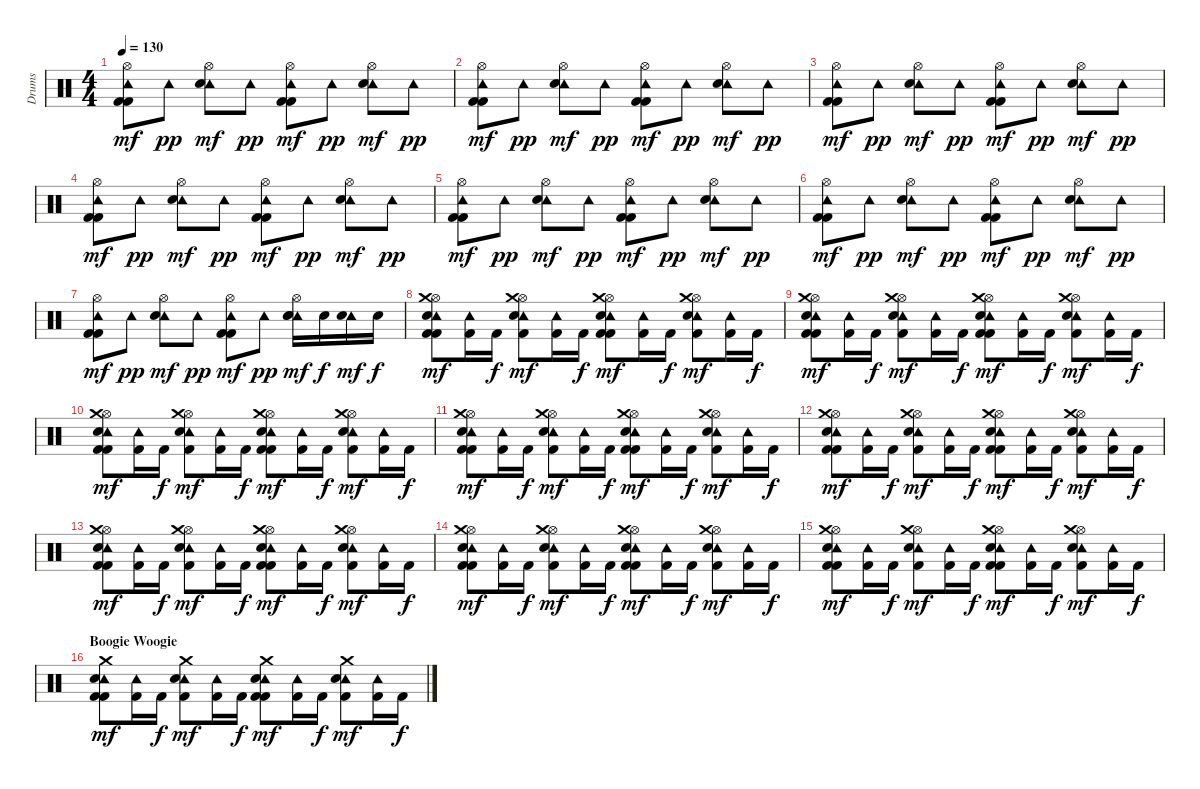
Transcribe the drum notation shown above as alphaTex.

\track ("Drums" "Drums") {instrument percussion}
\staff {score}
\articulation defaults
\ts (4 4)
\tempo 130
\clef neutral
\ks c
("Hi-Hat (open)" "Tambourine (hit)" "Kick (hit) 2" "Kick (hit) 2").8{dy mf} "Tambourine (hit)".8{dy pp} ("Hi-Hat (open)" "Tambourine (hit)" "Snare (hit) 2").8{dy mf} "Tambourine (hit)".8{dy pp} ("Hi-Hat (open)" "Tambourine (hit)" "Kick (hit) 2" "Kick (hit) 2").8{dy mf} "Tambourine (hit)".8{dy pp} ("Hi-Hat (open)" "Tambourine (hit)" "Snare (hit) 2").8{dy mf} "Tambourine (hit)".8{dy pp} |
("Hi-Hat (open)" "Tambourine (hit)" "Kick (hit) 2" "Kick (hit) 2").8{dy mf} "Tambourine (hit)".8{dy pp} ("Hi-Hat (open)" "Tambourine (hit)" "Snare (hit) 2").8{dy mf} "Tambourine (hit)".8{dy pp} ("Hi-Hat (open)" "Tambourine (hit)" "Kick (hit) 2" "Kick (hit) 2").8{dy mf} "Tambourine (hit)".8{dy pp} ("Hi-Hat (open)" "Tambourine (hit)" "Snare (hit) 2").8{dy mf} "Tambourine (hit)".8{dy pp} |
("Hi-Hat (open)" "Tambourine (hit)" "Kick (hit) 2" "Kick (hit) 2").8{dy mf} "Tambourine (hit)".8{dy pp} ("Hi-Hat (open)" "Tambourine (hit)" "Snare (hit) 2").8{dy mf} "Tambourine (hit)".8{dy pp} ("Hi-Hat (open)" "Tambourine (hit)" "Kick (hit) 2" "Kick (hit) 2").8{dy mf} "Tambourine (hit)".8{dy pp} ("Hi-Hat (open)" "Tambourine (hit)" "Snare (hit) 2").8{dy mf} "Tambourine (hit)".8{dy pp} |
("Hi-Hat (open)" "Tambourine (hit)" "Kick (hit) 2" "Kick (hit) 2").8{dy mf} "Tambourine (hit)".8{dy pp} ("Hi-Hat (open)" "Tambourine (hit)" "Snare (hit) 2").8{dy mf} "Tambourine (hit)".8{dy pp} ("Hi-Hat (open)" "Tambourine (hit)" "Kick (hit) 2" "Kick (hit) 2").8{dy mf} "Tambourine (hit)".8{dy pp} ("Hi-Hat (open)" "Tambourine (hit)" "Snare (hit) 2").8{dy mf} "Tambourine (hit)".8{dy pp} |
("Hi-Hat (open)" "Tambourine (hit)" "Kick (hit) 2" "Kick (hit) 2").8{dy mf} "Tambourine (hit)".8{dy pp} ("Hi-Hat (open)" "Tambourine (hit)" "Snare (hit) 2").8{dy mf} "Tambourine (hit)".8{dy pp} ("Hi-Hat (open)" "Tambourine (hit)" "Kick (hit) 2" "Kick (hit) 2").8{dy mf} "Tambourine (hit)".8{dy pp} ("Hi-Hat (open)" "Tambourine (hit)" "Snare (hit) 2").8{dy mf} "Tambourine (hit)".8{dy pp} |
("Hi-Hat (open)" "Tambourine (hit)" "Kick (hit) 2" "Kick (hit) 2").8{dy mf} "Tambourine (hit)".8{dy pp} ("Hi-Hat (open)" "Tambourine (hit)" "Snare (hit) 2").8{dy mf} "Tambourine (hit)".8{dy pp} ("Hi-Hat (open)" "Tambourine (hit)" "Kick (hit) 2" "Kick (hit) 2").8{dy mf} "Tambourine (hit)".8{dy pp} ("Hi-Hat (open)" "Tambourine (hit)" "Snare (hit) 2").8{dy mf} "Tambourine (hit)".8{dy pp} |
("Hi-Hat (open)" "Tambourine (hit)" "Kick (hit) 2" "Kick (hit) 2").8{dy mf} "Tambourine (hit)".8{dy pp} ("Hi-Hat (open)" "Tambourine (hit)" "Snare (hit) 2").8{dy mf} "Tambourine (hit)".8{dy pp} ("Hi-Hat (open)" "Tambourine (hit)" "Kick (hit) 2" "Kick (hit) 2").8{dy mf} "Tambourine (hit)".8{dy pp} ("Hi-Hat (open)" "Tambourine (hit)" "Snare (hit) 2" "Snare (hit) 2").16{dy mf} "Snare (hit) 2".16{dy f} ("Tambourine (hit)" "Snare (hit) 2").16{dy mf} "Snare (hit) 2".16{dy f} |
("Hi-Hat (open)" "Tambourine (hit)" "Snare (hit) 2" "Crash medium (hit)" "Kick (hit) 2" "Kick (hit) 2").8{dy mf} ("Tambourine (hit)" "Kick (hit) 2").16 "Kick (hit) 2".16{dy f} ("Hi-Hat (open)" "Tambourine (hit)" "Snare (hit) 2" "Crash medium (hit)" "Kick (hit) 2").8{dy mf} ("Tambourine (hit)" "Kick (hit) 2").16 "Kick (hit) 2".16{dy f} ("Hi-Hat (open)" "Tambourine (hit)" "Snare (hit) 2" "Crash medium (hit)" "Kick (hit) 2" "Kick (hit) 2").8{dy mf} ("Tambourine (hit)" "Kick (hit) 2").16 "Kick (hit) 2".16{dy f} ("Hi-Hat (open)" "Tambourine (hit)" "Snare (hit) 2" "Crash medium (hit)" "Kick (hit) 2").8{dy mf} ("Tambourine (hit)" "Kick (hit) 2").16 "Kick (hit) 2".16{dy f} |
("Hi-Hat (open)" "Tambourine (hit)" "Snare (hit) 2" "Crash medium (hit)" "Kick (hit) 2" "Kick (hit) 2").8{dy mf} ("Tambourine (hit)" "Kick (hit) 2").16 "Kick (hit) 2".16{dy f} ("Hi-Hat (open)" "Tambourine (hit)" "Snare (hit) 2" "Crash medium (hit)" "Kick (hit) 2").8{dy mf} ("Tambourine (hit)" "Kick (hit) 2").16 "Kick (hit) 2".16{dy f} ("Hi-Hat (open)" "Tambourine (hit)" "Snare (hit) 2" "Crash medium (hit)" "Kick (hit) 2" "Kick (hit) 2").8{dy mf} ("Tambourine (hit)" "Kick (hit) 2").16 "Kick (hit) 2".16{dy f} ("Hi-Hat (open)" "Tambourine (hit)" "Snare (hit) 2" "Crash medium (hit)" "Kick (hit) 2").8{dy mf} ("Tambourine (hit)" "Kick (hit) 2").16 "Kick (hit) 2".16{dy f} |
("Hi-Hat (open)" "Tambourine (hit)" "Snare (hit) 2" "Crash medium (hit)" "Kick (hit) 2" "Kick (hit) 2").8{dy mf} ("Tambourine (hit)" "Kick (hit) 2").16 "Kick (hit) 2".16{dy f} ("Hi-Hat (open)" "Tambourine (hit)" "Snare (hit) 2" "Crash medium (hit)" "Kick (hit) 2").8{dy mf} ("Tambourine (hit)" "Kick (hit) 2").16 "Kick (hit) 2".16{dy f} ("Hi-Hat (open)" "Tambourine (hit)" "Snare (hit) 2" "Crash medium (hit)" "Kick (hit) 2" "Kick (hit) 2").8{dy mf} ("Tambourine (hit)" "Kick (hit) 2").16 "Kick (hit) 2".16{dy f} ("Hi-Hat (open)" "Tambourine (hit)" "Snare (hit) 2" "Crash medium (hit)" "Kick (hit) 2").8{dy mf} ("Tambourine (hit)" "Kick (hit) 2").16 "Kick (hit) 2".16{dy f} |
("Hi-Hat (open)" "Tambourine (hit)" "Snare (hit) 2" "Crash medium (hit)" "Kick (hit) 2" "Kick (hit) 2").8{dy mf} ("Tambourine (hit)" "Kick (hit) 2").16 "Kick (hit) 2".16{dy f} ("Hi-Hat (open)" "Tambourine (hit)" "Snare (hit) 2" "Crash medium (hit)" "Kick (hit) 2").8{dy mf} ("Tambourine (hit)" "Kick (hit) 2").16 "Kick (hit) 2".16{dy f} ("Hi-Hat (open)" "Tambourine (hit)" "Snare (hit) 2" "Crash medium (hit)" "Kick (hit) 2" "Kick (hit) 2").8{dy mf} ("Tambourine (hit)" "Kick (hit) 2").16 "Kick (hit) 2".16{dy f} ("Hi-Hat (open)" "Tambourine (hit)" "Snare (hit) 2" "Crash medium (hit)" "Kick (hit) 2").8{dy mf} ("Tambourine (hit)" "Kick (hit) 2").16 "Kick (hit) 2".16{dy f} |
("Hi-Hat (open)" "Tambourine (hit)" "Snare (hit) 2" "Crash medium (hit)" "Kick (hit) 2" "Kick (hit) 2").8{dy mf} ("Tambourine (hit)" "Kick (hit) 2").16 "Kick (hit) 2".16{dy f} ("Hi-Hat (open)" "Tambourine (hit)" "Snare (hit) 2" "Crash medium (hit)" "Kick (hit) 2").8{dy mf} ("Tambourine (hit)" "Kick (hit) 2").16 "Kick (hit) 2".16{dy f} ("Hi-Hat (open)" "Tambourine (hit)" "Snare (hit) 2" "Crash medium (hit)" "Kick (hit) 2" "Kick (hit) 2").8{dy mf} ("Tambourine (hit)" "Kick (hit) 2").16 "Kick (hit) 2".16{dy f} ("Hi-Hat (open)" "Tambourine (hit)" "Snare (hit) 2" "Crash medium (hit)" "Kick (hit) 2").8{dy mf} ("Tambourine (hit)" "Kick (hit) 2").16 "Kick (hit) 2".16{dy f} |
("Hi-Hat (open)" "Tambourine (hit)" "Snare (hit) 2" "Crash medium (hit)" "Kick (hit) 2" "Kick (hit) 2").8{dy mf} ("Tambourine (hit)" "Kick (hit) 2").16 "Kick (hit) 2".16{dy f} ("Hi-Hat (open)" "Tambourine (hit)" "Snare (hit) 2" "Crash medium (hit)" "Kick (hit) 2").8{dy mf} ("Tambourine (hit)" "Kick (hit) 2").16 "Kick (hit) 2".16{dy f} ("Hi-Hat (open)" "Tambourine (hit)" "Snare (hit) 2" "Crash medium (hit)" "Kick (hit) 2" "Kick (hit) 2").8{dy mf} ("Tambourine (hit)" "Kick (hit) 2").16 "Kick (hit) 2".16{dy f} ("Hi-Hat (open)" "Tambourine (hit)" "Snare (hit) 2" "Crash medium (hit)" "Kick (hit) 2").8{dy mf} ("Tambourine (hit)" "Kick (hit) 2").16 "Kick (hit) 2".16{dy f} |
("Hi-Hat (open)" "Tambourine (hit)" "Snare (hit) 2" "Crash medium (hit)" "Kick (hit) 2" "Kick (hit) 2").8{dy mf} ("Tambourine (hit)" "Kick (hit) 2").16 "Kick (hit) 2".16{dy f} ("Hi-Hat (open)" "Tambourine (hit)" "Snare (hit) 2" "Crash medium (hit)" "Kick (hit) 2").8{dy mf} ("Tambourine (hit)" "Kick (hit) 2").16 "Kick (hit) 2".16{dy f} ("Hi-Hat (open)" "Tambourine (hit)" "Snare (hit) 2" "Crash medium (hit)" "Kick (hit) 2" "Kick (hit) 2").8{dy mf} ("Tambourine (hit)" "Kick (hit) 2").16 "Kick (hit) 2".16{dy f} ("Hi-Hat (open)" "Tambourine (hit)" "Snare (hit) 2" "Crash medium (hit)" "Kick (hit) 2").8{dy mf} ("Tambourine (hit)" "Kick (hit) 2").16 "Kick (hit) 2".16{dy f} |
("Hi-Hat (open)" "Tambourine (hit)" "Snare (hit) 2" "Crash medium (hit)" "Kick (hit) 2" "Kick (hit) 2").8{dy mf} ("Tambourine (hit)" "Kick (hit) 2").16 "Kick (hit) 2".16{dy f} ("Hi-Hat (open)" "Tambourine (hit)" "Snare (hit) 2" "Crash medium (hit)" "Kick (hit) 2").8{dy mf} ("Tambourine (hit)" "Kick (hit) 2").16 "Kick (hit) 2".16{dy f} ("Hi-Hat (open)" "Tambourine (hit)" "Snare (hit) 2" "Crash medium (hit)" "Kick (hit) 2" "Kick (hit) 2").8{dy mf} ("Tambourine (hit)" "Kick (hit) 2").16 "Kick (hit) 2".16{dy f} ("Hi-Hat (open)" "Tambourine (hit)" "Snare (hit) 2" "Crash medium (hit)" "Kick (hit) 2").8{dy mf} ("Tambourine (hit)" "Kick (hit) 2").16 "Kick (hit) 2".16{dy f} |
\section ("" "Boogie Woogie")
("Tambourine (hit)" "Snare (hit) 2" "Crash medium (hit)" "Kick (hit) 2" "Kick (hit) 2").8{dy mf} ("Tambourine (hit)" "Kick (hit) 2").16 "Kick (hit) 2".16{dy f} ("Tambourine (hit)" "Snare (hit) 2" "Crash medium (hit)" "Kick (hit) 2").8{dy mf} ("Tambourine (hit)" "Kick (hit) 2").16 "Kick (hit) 2".16{dy f} ("Tambourine (hit)" "Snare (hit) 2" "Crash medium (hit)" "Kick (hit) 2" "Kick (hit) 2").8{dy mf} ("Tambourine (hit)" "Kick (hit) 2").16 "Kick (hit) 2".16{dy f} ("Tambourine (hit)" "Snare (hit) 2" "Crash medium (hit)" "Kick (hit) 2").8{dy mf} ("Tambourine (hit)" "Kick (hit) 2").16 "Kick (hit) 2".16{dy f}
